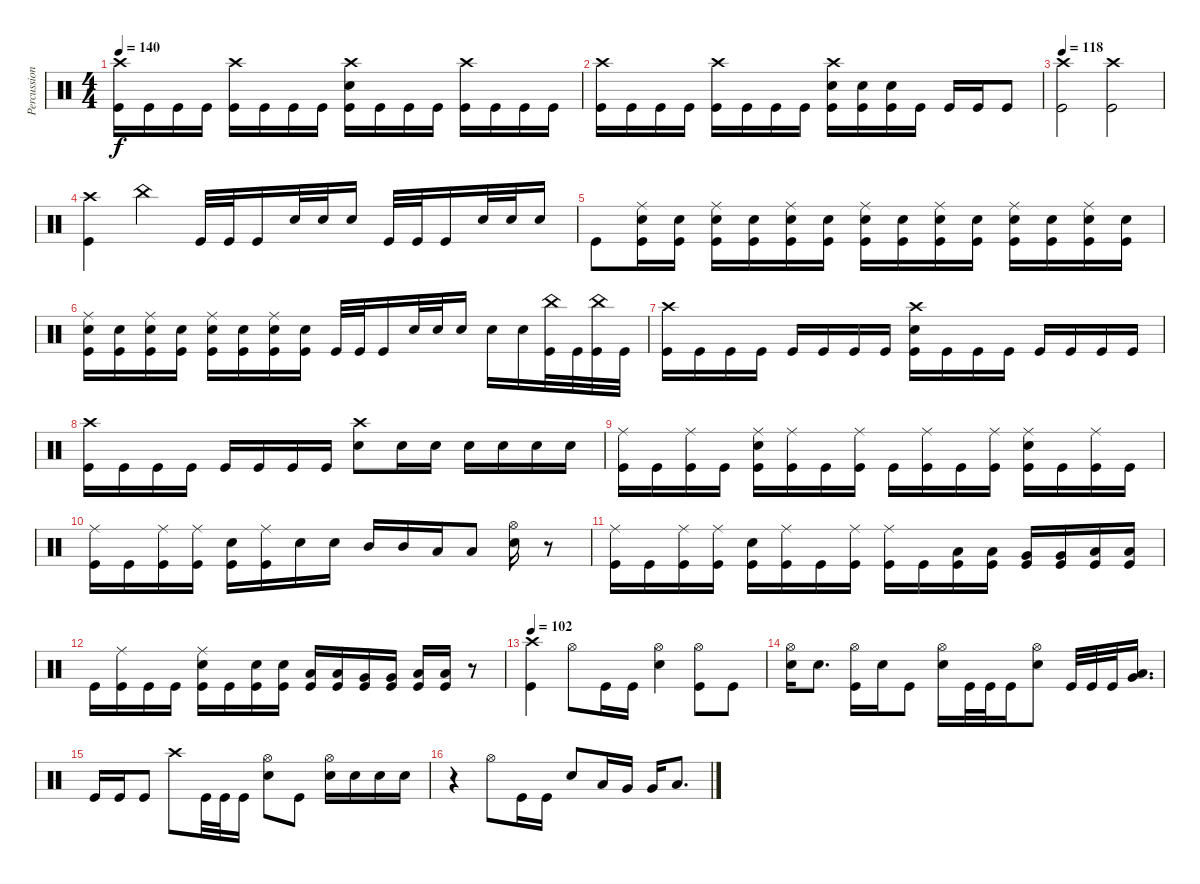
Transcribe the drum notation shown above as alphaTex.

\track ("Percussion" "Percussion") {instrument percussion}
\staff {score}
\articulation defaults
\ts (4 4)
\tempo 140
\clef neutral
\ks c
("Crash high (hit)" "Kick (hit)").16{dy f} "Kick (hit)".16 "Kick (hit)".16 "Kick (hit)".16 ("Crash high (hit)" "Kick (hit)").16 "Kick (hit)".16 "Kick (hit)".16 "Kick (hit)".16 ("Crash high (hit)" "Snare (hit) 2" "Kick (hit)").16 "Kick (hit)".16 "Kick (hit)".16 "Kick (hit)".16 ("Crash high (hit)" "Kick (hit)").16 "Kick (hit)".16 "Kick (hit)".16 "Kick (hit)".16 |
("Crash high (hit)" "Kick (hit)").16 "Kick (hit)".16 "Kick (hit)".16 "Kick (hit)".16 ("Crash high (hit)" "Kick (hit)").16 "Kick (hit)".16 "Kick (hit)".16 "Kick (hit)".16 ("Crash high (hit)" "Snare (hit) 2" "Kick (hit)").16 ("Snare (hit) 2" "Kick (hit)").16 ("Snare (hit) 2" "Kick (hit)").16 "Kick (hit)".16 "Kick (hit)".16 "Kick (hit)".16 "Kick (hit)".8 |
\tempo 118
("Crash high (hit)" "Kick (hit)").2 ("Crash high (hit)" "Kick (hit)").2 |
("Crash high (hit)" "Kick (hit)").4 "China (hit)".4 "Kick (hit)".32 "Kick (hit)".32 "Kick (hit)".16 "Snare (hit) 2".32 "Snare (hit) 2".32 "Snare (hit) 2".16 "Kick (hit)".32 "Kick (hit)".32 "Kick (hit)".16 "Snare (hit) 2".32 "Snare (hit) 2".32 "Snare (hit) 2".16 |
"Kick (hit)".8 ("Ride (middle)" "Snare (hit) 2" "Kick (hit)").16 ("Snare (hit) 2" "Kick (hit)").16 ("Ride (middle)" "Snare (hit) 2" "Kick (hit)").16 ("Snare (hit) 2" "Kick (hit)").16 ("Ride (middle)" "Snare (hit) 2" "Kick (hit)").16 ("Snare (hit) 2" "Kick (hit)").16 ("Ride (middle)" "Snare (hit) 2" "Kick (hit)").16 ("Snare (hit) 2" "Kick (hit)").16 ("Ride (middle)" "Snare (hit) 2" "Kick (hit)").16 ("Snare (hit) 2" "Kick (hit)").16 ("Ride (middle)" "Snare (hit) 2" "Kick (hit)").16 ("Snare (hit) 2" "Kick (hit)").16 ("Ride (middle)" "Snare (hit) 2" "Kick (hit)").16 ("Snare (hit) 2" "Kick (hit)").16 |
("Ride (middle)" "Snare (hit) 2" "Kick (hit)").16 ("Snare (hit) 2" "Kick (hit)").16 ("Ride (middle)" "Snare (hit) 2" "Kick (hit)").16 ("Snare (hit) 2" "Kick (hit)").16 ("Ride (middle)" "Snare (hit) 2" "Kick (hit)").16 ("Snare (hit) 2" "Kick (hit)").16 ("Ride (middle)" "Snare (hit) 2" "Kick (hit)").16 ("Snare (hit) 2" "Kick (hit)").16 "Kick (hit)".32 "Kick (hit)".32 "Kick (hit)".16 "Snare (hit) 2".32 "Snare (hit) 2".32 "Snare (hit) 2".16 "Snare (hit) 2".16 "Snare (hit) 2".16 ("China (hit)" "Kick (hit)").32 "Kick (hit)".32 ("China (hit)" "Kick (hit)").32 "Kick (hit)".32 |
("Crash high (hit)" "Kick (hit)").16 "Kick (hit)".16 "Kick (hit)".16 "Kick (hit)".16 "Kick (hit)".16 "Kick (hit)".16 "Kick (hit)".16 "Kick (hit)".16 ("Crash high (hit)" "Snare (hit) 2" "Kick (hit)").16 "Kick (hit)".16 "Kick (hit)".16 "Kick (hit)".16 "Kick (hit)".16 "Kick (hit)".16 "Kick (hit)".16 "Kick (hit)".16 |
("Crash high (hit)" "Kick (hit)").16 "Kick (hit)".16 "Kick (hit)".16 "Kick (hit)".16 "Kick (hit)".16 "Kick (hit)".16 "Kick (hit)".16 "Kick (hit)".16 ("Crash high (hit)" "Snare (hit) 2").8 "Snare (hit) 2".16 "Snare (hit) 2".16 "Snare (hit) 2".16 "Snare (hit) 2".16 "Snare (hit) 2".16 "Snare (hit) 2".16 |
("Ride (middle)" "Kick (hit)").16 "Kick (hit)".16 ("Ride (middle)" "Kick (hit)").16 "Kick (hit)".16 ("Ride (middle)" "Snare (hit) 2" "Kick (hit)").16 ("Ride (middle)" "Kick (hit)").16 "Kick (hit)".16 ("Ride (middle)" "Kick (hit)").16 "Kick (hit)".16 ("Ride (middle)" "Kick (hit)").16 "Kick (hit)".16 ("Ride (middle)" "Kick (hit)").16 ("Ride (middle)" "Snare (hit) 2" "Kick (hit)").16 "Kick (hit)".16 ("Ride (middle)" "Kick (hit)").16 "Kick (hit)".16 |
("Ride (middle)" "Kick (hit)").16 "Kick (hit)".16 ("Ride (middle)" "Kick (hit)").16 ("Ride (middle)" "Kick (hit)").16 ("Snare (hit) 2" "Kick (hit)").16 ("Ride (middle)" "Kick (hit)").16 "Snare (hit) 2".16 "Snare (hit) 2".16 "Mid Tom (hit)".16 "Mid Tom (hit)".16 "Low Tom (hit)".16 "Low Tom (hit)".8 ("Hi-Hat (open)" "Snare (hit) 2").16 r.8 |
("Ride (middle)" "Kick (hit)").16 "Kick (hit)".16 ("Ride (middle)" "Kick (hit)").16 ("Ride (middle)" "Kick (hit)").16 ("Snare (hit) 2" "Kick (hit)").16 ("Ride (middle)" "Kick (hit)").16 "Kick (hit)".16 ("Ride (middle)" "Kick (hit)").16 ("Ride (middle)" "Kick (hit)").16 "Kick (hit)".16 ("Low Tom (hit)" "Kick (hit)").16 ("Low Tom (hit)" "Kick (hit)").16 ("Very Low Tom (hit)" "Kick (hit)").16 ("Very Low Tom (hit)" "Kick (hit)").16 ("Low Floor Tom (hit)" "Kick (hit)").16 ("Low Floor Tom (hit)" "Kick (hit)").16 |
"Kick (hit)".16 ("Ride (middle)" "Kick (hit)").16 "Kick (hit)".16 "Kick (hit)".16 ("Ride (middle)" "Snare (hit) 2" "Kick (hit)").16 "Kick (hit)".16 ("Snare (hit) 2" "Kick (hit)").16 ("Snare (hit) 2" "Kick (hit)").16 ("Low Tom (hit)" "Kick (hit)").16 ("Low Tom (hit)" "Kick (hit)").16 ("Very Low Tom (hit)" "Kick (hit)").16 ("Very Low Tom (hit)" "Kick (hit)").16 ("Low Floor Tom (hit)" "Kick (hit)").16 ("Low Floor Tom (hit)" "Kick (hit)").16 r.8 |
\tempo 102
("Crash high (hit)" "Kick (hit)").4 "Hi-Hat (open)".8 "Kick (hit)".16 "Kick (hit)".16 ("Hi-Hat (open)" "Snare (hit) 2").4 ("Hi-Hat (open)" "Kick (hit)").8 "Kick (hit)".8 |
("Hi-Hat (open)" "Snare (hit) 2").16 "Snare (hit) 2".8{d} ("Hi-Hat (open)" "Kick (hit)").16 "Snare (hit) 2".16 "Kick (hit)".8 ("Hi-Hat (open)" "Snare (hit) 2").16 "Kick (hit)".32 "Kick (hit)".32 "Kick (hit)".16 ("Hi-Hat (open)" "Snare (hit) 2").8 "Kick (hit)".32 "Kick (hit)".32 "Kick (hit)".32 ("Low Floor Tom (hit)" "Very Low Tom (hit)").16{d} |
"Kick (hit)".16 "Kick (hit)".16 "Kick (hit)".8 "Crash high (hit)".8 "Kick (hit)".32 "Kick (hit)".32 "Kick (hit)".16 ("Hi-Hat (open)" "Snare (hit) 2").8 "Kick (hit)".8 ("Hi-Hat (open)" "Snare (hit) 2").16 "Snare (hit) 2".16 "Snare (hit) 2".16 "Snare (hit) 2".16 |
r.4 "Hi-Hat (open)".8 "Kick (hit)".16 "Kick (hit)".16 "Snare (hit) 2".8 "Low Tom (hit)".16 "Very Low Tom (hit)".16 "Very Low Tom (hit)".16 "Low Floor Tom (hit)".8{d}
